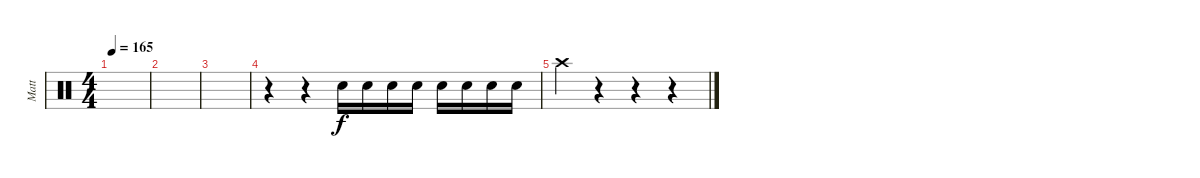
\track ("Matt" "Matt") {instrument percussion}
\staff {score}
\articulation defaults
\ts (4 4)
\tempo 165
\clef neutral
\ks c
|
|
|
r.4 r.4 "Electric Snare (hit)".16 "Electric Snare (hit)".16 "Electric Snare (hit)".16 "Electric Snare (hit)".16 "Electric Snare (hit)".16 "Electric Snare (hit)".16 "Electric Snare (hit)".16 "Electric Snare (hit)".16 |
"Crash high (hit)".4 r.4 r.4 r.4
